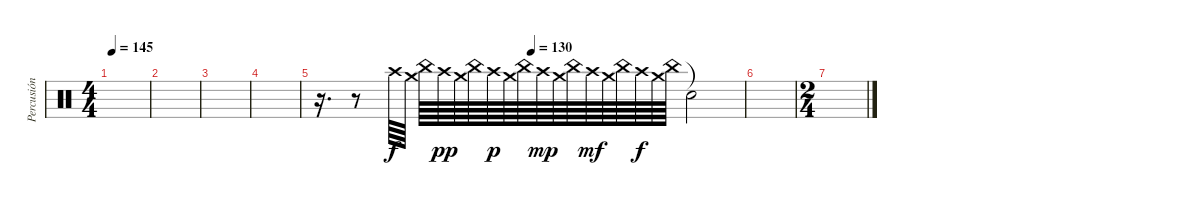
\track ("Percusión" "Percusión") {instrument percussion}
\staff {score}
\articulation defaults
\ts (4 4)
\tempo 145
\clef neutral
\ks c
|
|
|
|
\tempo (130 0.5)
r.16{d} r.8 "Crash high (hit)".64 "Crash medium (hit)".64 "China (hit)".64 "Crash high (hit)".64{dy pp} "Crash medium (hit)".64 "China (hit)".64 "Crash high (hit)".64{dy p} "Crash medium (hit)".64 "China (hit)".64 "Crash high (hit)".64{dy mp} "Crash medium (hit)".64 "China (hit)".64 "Crash high (hit)".64{dy mf} "Crash medium (hit)".64 "China (hit)".64 "Crash high (hit)".64{dy f} "Crash medium (hit)".64 "China (hit)".64 "Snare (hit)"{t}.2 |
|
\ts (2 4)
